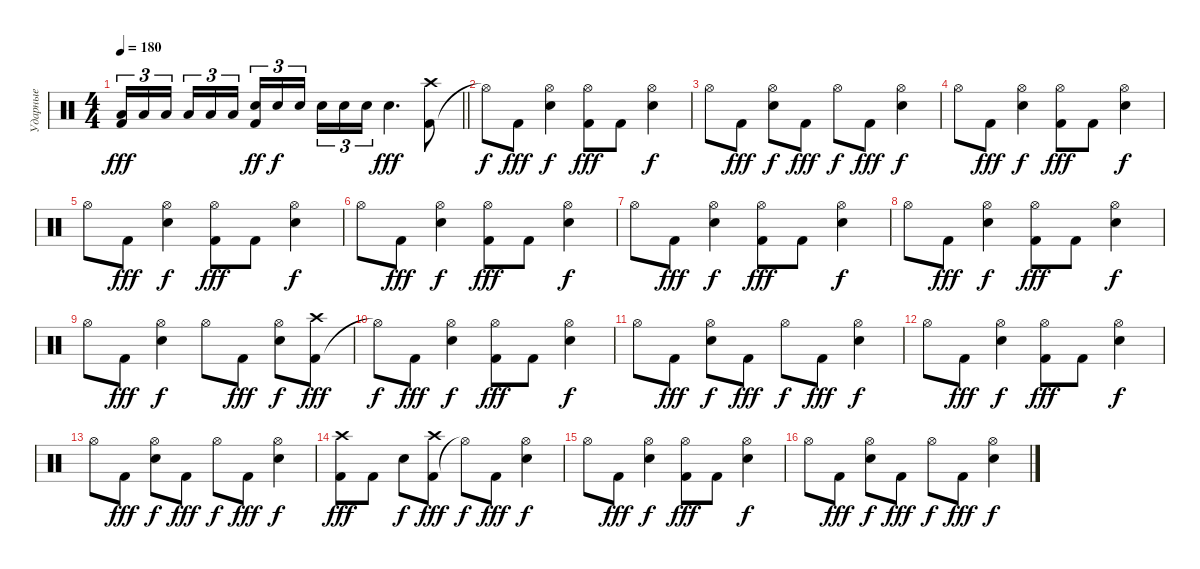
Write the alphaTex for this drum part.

\track ("Ударные" "Ударные") {instrument percussion}
\staff
\articulation defaults
\ts (4 4)
\tempo 180
\clef neutral
\barLineRight lightlight
\ks c
("Kick (hit) 2" "Low Tom (hit)").16{tu (3 2) dy fff} "Low Tom (hit)".16{tu (3 2)} "Low Tom (hit)".16{tu (3 2) beam splitsecondary} "Low Tom (hit)".16{tu (3 2)} "Low Tom (hit)".16{tu (3 2)} "Low Tom (hit)".16{tu (3 2)} ("Kick (hit) 2" "Electric Snare (hit)").16{tu (3 2) dy ff} "Electric Snare (hit)".16{tu (3 2) dy f} "Electric Snare (hit)".16{tu (3 2) beam splitsecondary} "Electric Snare (hit)".16{tu (3 2)} "Electric Snare (hit)".16{tu (3 2)} "Electric Snare (hit)".16{tu (3 2)} "Snare (hit) 2".4{d dy fff} ("Kick (hit) 2" "Crash high (hit)").8 |
"Hi-Hat (open)"{t}.8{dy f} "Kick (hit) 2".8{dy fff} ("Snare (hit) 2" "Hi-Hat (open)").4{dy f} ("Kick (hit) 2" "Hi-Hat (open)").8{dy fff} "Kick (hit) 2".8 ("Snare (hit) 2" "Hi-Hat (open)").4{dy f} |
"Hi-Hat (open)".8 "Kick (hit) 2".8{dy fff} ("Snare (hit) 2" "Hi-Hat (open)").8{dy f} "Kick (hit) 2".8{dy fff} "Hi-Hat (open)".8{dy f} "Kick (hit) 2".8{dy fff} ("Snare (hit) 2" "Hi-Hat (open)").4{dy f} |
"Hi-Hat (open)".8 "Kick (hit) 2".8{dy fff} ("Snare (hit) 2" "Hi-Hat (open)").4{dy f} ("Kick (hit) 2" "Hi-Hat (open)").8{dy fff} "Kick (hit) 2".8 ("Snare (hit) 2" "Hi-Hat (open)").4{dy f} |
"Hi-Hat (open)".8 "Kick (hit) 2".8{dy fff} ("Snare (hit) 2" "Hi-Hat (open)").4{dy f} ("Kick (hit) 2" "Hi-Hat (open)").8{dy fff} "Kick (hit) 2".8 ("Snare (hit) 2" "Hi-Hat (open)").4{dy f} |
"Hi-Hat (open)".8 "Kick (hit) 2".8{dy fff} ("Snare (hit) 2" "Hi-Hat (open)").4{dy f} ("Kick (hit) 2" "Hi-Hat (open)").8{dy fff} "Kick (hit) 2".8 ("Snare (hit) 2" "Hi-Hat (open)").4{dy f} |
"Hi-Hat (open)".8 "Kick (hit) 2".8{dy fff} ("Snare (hit) 2" "Hi-Hat (open)").4{dy f} ("Kick (hit) 2" "Hi-Hat (open)").8{dy fff} "Kick (hit) 2".8 ("Snare (hit) 2" "Hi-Hat (open)").4{dy f} |
"Hi-Hat (open)".8 "Kick (hit) 2".8{dy fff} ("Snare (hit) 2" "Hi-Hat (open)").4{dy f} ("Kick (hit) 2" "Hi-Hat (open)").8{dy fff} "Kick (hit) 2".8 ("Snare (hit) 2" "Hi-Hat (open)").4{dy f} |
"Hi-Hat (open)".8 "Kick (hit) 2".8{dy fff} ("Snare (hit) 2" "Hi-Hat (open)").4{dy f} "Hi-Hat (open)".8 "Kick (hit) 2".8{dy fff} ("Snare (hit) 2" "Hi-Hat (open)").8{dy f} ("Kick (hit) 2" "Crash high (hit)").8{dy fff} |
"Hi-Hat (open)"{t}.8{dy f} "Kick (hit) 2".8{dy fff} ("Snare (hit) 2" "Hi-Hat (open)").4{dy f} ("Kick (hit) 2" "Hi-Hat (open)").8{dy fff} "Kick (hit) 2".8 ("Snare (hit) 2" "Hi-Hat (open)").4{dy f} |
"Hi-Hat (open)".8 "Kick (hit) 2".8{dy fff} ("Snare (hit) 2" "Hi-Hat (open)").8{dy f} "Kick (hit) 2".8{dy fff} "Hi-Hat (open)".8{dy f} "Kick (hit) 2".8{dy fff} ("Snare (hit) 2" "Hi-Hat (open)").4{dy f} |
"Hi-Hat (open)".8 "Kick (hit) 2".8{dy fff} ("Snare (hit) 2" "Hi-Hat (open)").4{dy f} ("Kick (hit) 2" "Hi-Hat (open)").8{dy fff} "Kick (hit) 2".8 ("Snare (hit) 2" "Hi-Hat (open)").4{dy f} |
"Hi-Hat (open)".8 "Kick (hit) 2".8{dy fff} ("Snare (hit) 2" "Hi-Hat (open)").8{dy f} "Kick (hit) 2".8{dy fff} "Hi-Hat (open)".8{dy f} "Kick (hit) 2".8{dy fff} ("Snare (hit) 2" "Hi-Hat (open)").4{dy f} |
("Kick (hit) 2" "Crash high (hit)").8{dy fff} "Kick (hit) 2".8 "Snare (hit) 2".8{dy f} ("Kick (hit) 2" "Crash high (hit)").8{dy fff} "Hi-Hat (open)"{t}.8{dy f} "Kick (hit) 2".8{dy fff} ("Snare (hit) 2" "Hi-Hat (open)").4{dy f} |
"Hi-Hat (open)".8 "Kick (hit) 2".8{dy fff} ("Snare (hit) 2" "Hi-Hat (open)").4{dy f} ("Kick (hit) 2" "Hi-Hat (open)").8{dy fff} "Kick (hit) 2".8 ("Snare (hit) 2" "Hi-Hat (open)").4{dy f} |
"Hi-Hat (open)".8 "Kick (hit) 2".8{dy fff} ("Snare (hit) 2" "Hi-Hat (open)").8{dy f} "Kick (hit) 2".8{dy fff} "Hi-Hat (open)".8{dy f} "Kick (hit) 2".8{dy fff} ("Snare (hit) 2" "Hi-Hat (open)").4{dy f}
